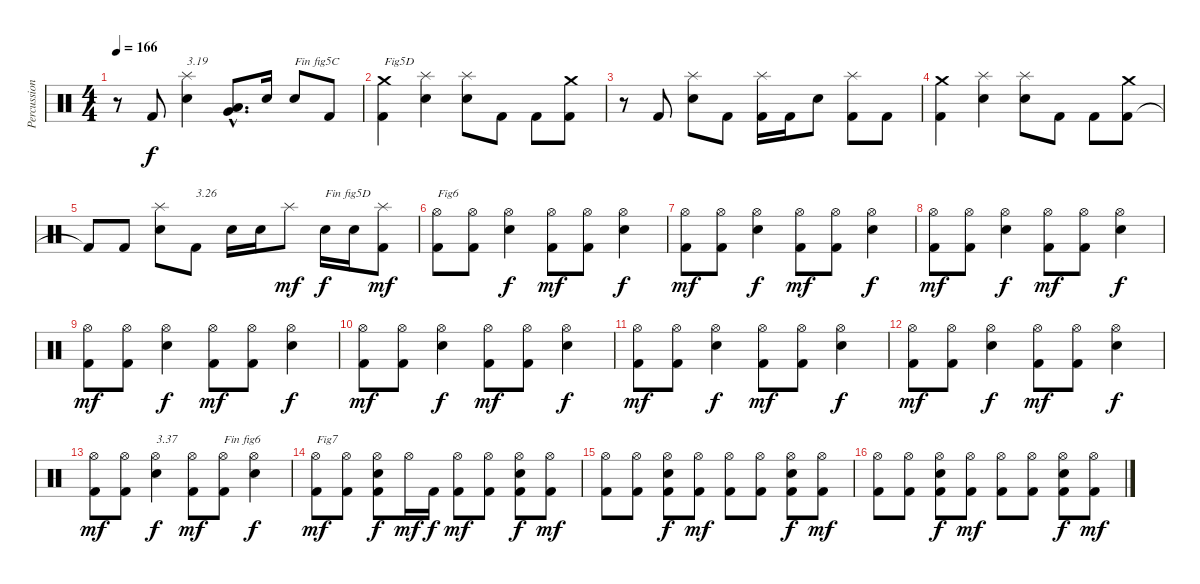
\track ("Percussions" "Percussion") {instrument percussion}
\staff {score}
\articulation defaults
\ts (4 4)
\tempo 166
\clef neutral
\ks c
r.8{dy f} "Kick (hit) 2".8 ("Electric Snare (hit)" "Splash (hit)").4{txt "3.19"} ("Low Floor Tom (hit)"{hac} "Very Low Tom (hit)"{hac}).8{d} "Electric Snare (hit)".16 "Electric Snare (hit)".8{txt "Fin fig5C"} "Kick (hit) 2".8 |
("Kick (hit) 2" "Crash medium (hit)").4{txt "Fig5D"} ("Electric Snare (hit)" "Splash (hit)").4 ("Electric Snare (hit)" "Splash (hit)").8 "Kick (hit) 2".8 "Kick (hit) 2".8 ("Kick (hit) 2" "Crash medium (hit)").8 |
r.8 "Kick (hit) 2".8 ("Electric Snare (hit)" "Splash (hit)").8 "Kick (hit) 2".8 ("Kick (hit) 2" "Splash (hit)").16 "Kick (hit) 2".16 "Electric Snare (hit)".8 ("Kick (hit) 2" "Splash (hit)").8 "Kick (hit) 2".8 |
("Kick (hit) 2" "Crash medium (hit)").4 ("Electric Snare (hit)" "Splash (hit)").4 ("Electric Snare (hit)" "Splash (hit)").8 "Kick (hit) 2".8 "Kick (hit) 2".8 ("Kick (hit) 2" "Crash medium (hit)").8 |
"Kick (hit) 2"{t}.8 "Kick (hit) 2".8 ("Electric Snare (hit)" "Splash (hit)").8 "Kick (hit) 2".8{txt "3.26"} "Electric Snare (hit)".16 "Electric Snare (hit)".16 "Splash (hit)".8{dy mf} "Electric Snare (hit)".16{txt "Fin fig5D" dy f} "Electric Snare (hit)".16 ("Kick (hit) 2" "Splash (hit)").8{dy mf} |
("Kick (hit) 2" "Hi-Hat (open)").8{txt "Fig6"} ("Kick (hit) 2" "Hi-Hat (open)").8 ("Electric Snare (hit)" "Hi-Hat (open)").4{dy f} ("Kick (hit) 2" "Hi-Hat (open)").8{dy mf} ("Kick (hit) 2" "Hi-Hat (open)").8 ("Electric Snare (hit)" "Hi-Hat (open)").4{dy f} |
("Kick (hit) 2" "Hi-Hat (open)").8{dy mf} ("Kick (hit) 2" "Hi-Hat (open)").8 ("Electric Snare (hit)" "Hi-Hat (open)").4{dy f} ("Kick (hit) 2" "Hi-Hat (open)").8{dy mf} ("Kick (hit) 2" "Hi-Hat (open)").8 ("Electric Snare (hit)" "Hi-Hat (open)").4{dy f} |
("Kick (hit) 2" "Hi-Hat (open)").8{dy mf} ("Kick (hit) 2" "Hi-Hat (open)").8 ("Electric Snare (hit)" "Hi-Hat (open)").4{dy f} ("Kick (hit) 2" "Hi-Hat (open)").8{dy mf} ("Kick (hit) 2" "Hi-Hat (open)").8 ("Electric Snare (hit)" "Hi-Hat (open)").4{dy f} |
("Kick (hit) 2" "Hi-Hat (open)").8{dy mf} ("Kick (hit) 2" "Hi-Hat (open)").8 ("Electric Snare (hit)" "Hi-Hat (open)").4{dy f} ("Kick (hit) 2" "Hi-Hat (open)").8{dy mf} ("Kick (hit) 2" "Hi-Hat (open)").8 ("Electric Snare (hit)" "Hi-Hat (open)").4{dy f} |
("Kick (hit) 2" "Hi-Hat (open)").8{dy mf} ("Kick (hit) 2" "Hi-Hat (open)").8 ("Electric Snare (hit)" "Hi-Hat (open)").4{dy f} ("Kick (hit) 2" "Hi-Hat (open)").8{dy mf} ("Kick (hit) 2" "Hi-Hat (open)").8 ("Electric Snare (hit)" "Hi-Hat (open)").4{dy f} |
("Kick (hit) 2" "Hi-Hat (open)").8{dy mf} ("Kick (hit) 2" "Hi-Hat (open)").8 ("Electric Snare (hit)" "Hi-Hat (open)").4{dy f} ("Kick (hit) 2" "Hi-Hat (open)").8{dy mf} ("Kick (hit) 2" "Hi-Hat (open)").8 ("Electric Snare (hit)" "Hi-Hat (open)").4{dy f} |
("Kick (hit) 2" "Hi-Hat (open)").8{dy mf} ("Kick (hit) 2" "Hi-Hat (open)").8 ("Electric Snare (hit)" "Hi-Hat (open)").4{dy f} ("Kick (hit) 2" "Hi-Hat (open)").8{dy mf} ("Kick (hit) 2" "Hi-Hat (open)").8 ("Electric Snare (hit)" "Hi-Hat (open)").4{dy f} |
("Kick (hit) 2" "Hi-Hat (open)").8{dy mf} ("Kick (hit) 2" "Hi-Hat (open)").8 ("Electric Snare (hit)" "Hi-Hat (open)").4{txt "3.37" dy f} ("Kick (hit) 2" "Hi-Hat (open)").8{dy mf} ("Kick (hit) 2" "Hi-Hat (open)").8{txt "Fin fig6"} ("Electric Snare (hit)" "Hi-Hat (open)").4{dy f} |
("Kick (hit) 2" "Hi-Hat (open)").8{txt "Fig7" dy mf} ("Kick (hit) 2" "Hi-Hat (open)").8 ("Kick (hit) 2" "Electric Snare (hit)" "Hi-Hat (open)").8{dy f} "Hi-Hat (open)".16{dy mf} "Kick (hit) 2".16{dy f} ("Kick (hit) 2" "Hi-Hat (open)").8{dy mf} ("Kick (hit) 2" "Hi-Hat (open)").8 ("Kick (hit) 2" "Electric Snare (hit)" "Hi-Hat (open)").8{dy f} ("Kick (hit) 2" "Hi-Hat (open)").8{dy mf} |
("Kick (hit) 2" "Hi-Hat (open)").8 ("Kick (hit) 2" "Hi-Hat (open)").8 ("Kick (hit) 2" "Electric Snare (hit)" "Hi-Hat (open)").8{dy f} ("Kick (hit) 2" "Hi-Hat (open)").8{dy mf} ("Kick (hit) 2" "Hi-Hat (open)").8 ("Kick (hit) 2" "Hi-Hat (open)").8 ("Kick (hit) 2" "Electric Snare (hit)" "Hi-Hat (open)").8{dy f} ("Kick (hit) 2" "Hi-Hat (open)").8{dy mf} |
("Kick (hit) 2" "Hi-Hat (open)").8 ("Kick (hit) 2" "Hi-Hat (open)").8 ("Kick (hit) 2" "Electric Snare (hit)" "Hi-Hat (open)").8{dy f} ("Kick (hit) 2" "Hi-Hat (open)").8{dy mf} ("Kick (hit) 2" "Hi-Hat (open)").8 ("Kick (hit) 2" "Hi-Hat (open)").8 ("Kick (hit) 2" "Electric Snare (hit)" "Hi-Hat (open)").8{dy f} ("Kick (hit) 2" "Hi-Hat (open)").8{dy mf}
